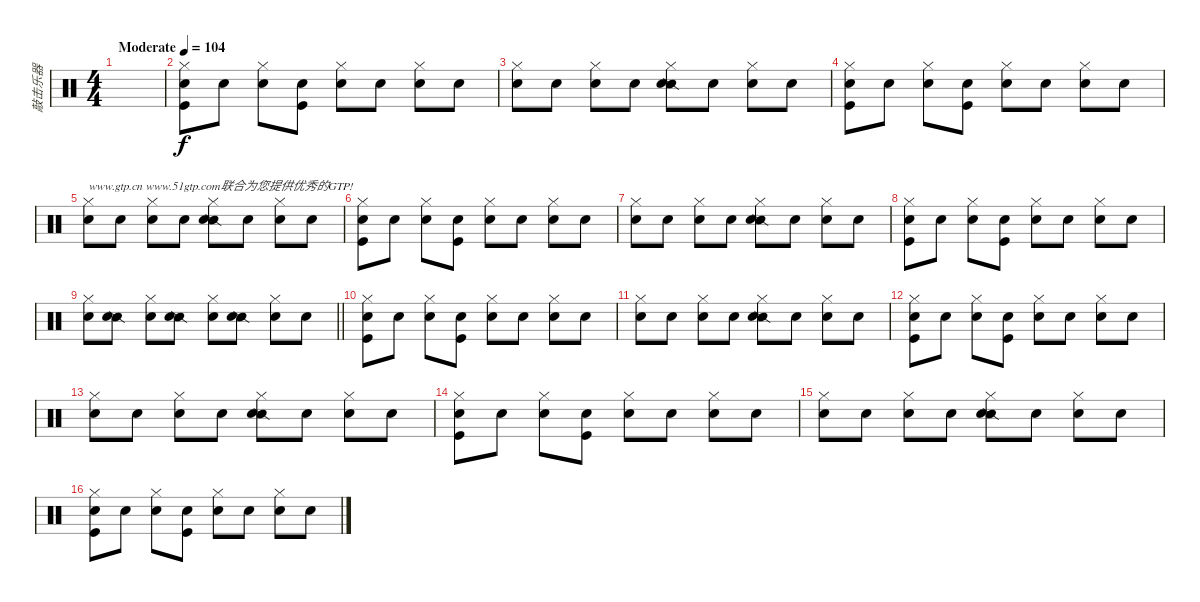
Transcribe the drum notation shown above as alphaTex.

\track ("敲击乐器" "敲击乐器") {instrument percussion}
\staff {score}
\articulation defaults
\ts (4 4)
\tempo (104 "Moderate")
\clef neutral
\ks c
|
("Hi-Hat (closed)" "Snare (hit)" "Kick (hit)").8 "Snare (hit)".8 ("Hi-Hat (closed)" "Snare (hit)").8 ("Snare (hit)" "Kick (hit)").8 ("Hi-Hat (closed)" "Snare (hit)").8 "Snare (hit)".8 ("Hi-Hat (closed)" "Snare (hit)").8 "Snare (hit)".8 |
("Hi-Hat (closed)" "Snare (hit)").8 "Snare (hit)".8 ("Hi-Hat (closed)" "Snare (hit)").8 "Snare (hit)".8 ("Snare (side stick) 2" "Hi-Hat (closed)" "Snare (hit)").8 "Snare (hit)".8 ("Hi-Hat (closed)" "Snare (hit)").8 "Snare (hit)".8 |
("Hi-Hat (closed)" "Snare (hit)" "Kick (hit)").8 "Snare (hit)".8 ("Hi-Hat (closed)" "Snare (hit)").8 ("Snare (hit)" "Kick (hit)").8 ("Hi-Hat (closed)" "Snare (hit)").8 "Snare (hit)".8 ("Hi-Hat (closed)" "Snare (hit)").8 "Snare (hit)".8 |
("Hi-Hat (closed)" "Snare (hit)").8{txt "www.gtp.cn www.51gtp.com联合为您提供优秀的GTP!"} "Snare (hit)".8 ("Hi-Hat (closed)" "Snare (hit)").8 "Snare (hit)".8 ("Snare (side stick) 2" "Hi-Hat (closed)" "Snare (hit)").8 "Snare (hit)".8 ("Hi-Hat (closed)" "Snare (hit)").8 "Snare (hit)".8 |
("Hi-Hat (closed)" "Snare (hit)" "Kick (hit)").8 "Snare (hit)".8 ("Hi-Hat (closed)" "Snare (hit)").8 ("Snare (hit)" "Kick (hit)").8 ("Hi-Hat (closed)" "Snare (hit)").8 "Snare (hit)".8 ("Hi-Hat (closed)" "Snare (hit)").8 "Snare (hit)".8 |
("Hi-Hat (closed)" "Snare (hit)").8 "Snare (hit)".8 ("Hi-Hat (closed)" "Snare (hit)").8 "Snare (hit)".8 ("Snare (side stick) 2" "Hi-Hat (closed)" "Snare (hit)").8 "Snare (hit)".8 ("Hi-Hat (closed)" "Snare (hit)").8 "Snare (hit)".8 |
("Hi-Hat (closed)" "Snare (hit)" "Kick (hit)").8 "Snare (hit)".8 ("Hi-Hat (closed)" "Snare (hit)").8 ("Snare (hit)" "Kick (hit)").8 ("Hi-Hat (closed)" "Snare (hit)").8 "Snare (hit)".8 ("Hi-Hat (closed)" "Snare (hit)").8 "Snare (hit)".8 |
\barLineRight lightlight
("Hi-Hat (closed)" "Snare (hit)").8 ("Snare (side stick) 2" "Snare (hit)").8 ("Hi-Hat (closed)" "Snare (hit)").8 ("Snare (side stick) 2" "Snare (hit)").8 ("Hi-Hat (closed)" "Snare (hit)").8 ("Snare (side stick) 2" "Snare (hit)").8 ("Hi-Hat (closed)" "Snare (hit)").8 "Snare (hit)".8 |
("Hi-Hat (closed)" "Snare (hit)" "Kick (hit)").8 "Snare (hit)".8 ("Hi-Hat (closed)" "Snare (hit)").8 ("Snare (hit)" "Kick (hit)").8 ("Hi-Hat (closed)" "Snare (hit)").8 "Snare (hit)".8 ("Hi-Hat (closed)" "Snare (hit)").8 "Snare (hit)".8 |
("Hi-Hat (closed)" "Snare (hit)").8 "Snare (hit)".8 ("Hi-Hat (closed)" "Snare (hit)").8 "Snare (hit)".8 ("Snare (side stick) 2" "Hi-Hat (closed)" "Snare (hit)").8 "Snare (hit)".8 ("Hi-Hat (closed)" "Snare (hit)").8 "Snare (hit)".8 |
("Hi-Hat (closed)" "Snare (hit)" "Kick (hit)").8 "Snare (hit)".8 ("Hi-Hat (closed)" "Snare (hit)").8 ("Snare (hit)" "Kick (hit)").8 ("Hi-Hat (closed)" "Snare (hit)").8 "Snare (hit)".8 ("Hi-Hat (closed)" "Snare (hit)").8 "Snare (hit)".8 |
("Hi-Hat (closed)" "Snare (hit)").8 "Snare (hit)".8 ("Hi-Hat (closed)" "Snare (hit)").8 "Snare (hit)".8 ("Snare (side stick) 2" "Hi-Hat (closed)" "Snare (hit)").8 "Snare (hit)".8 ("Hi-Hat (closed)" "Snare (hit)").8 "Snare (hit)".8 |
("Hi-Hat (closed)" "Snare (hit)" "Kick (hit)").8 "Snare (hit)".8 ("Hi-Hat (closed)" "Snare (hit)").8 ("Snare (hit)" "Kick (hit)").8 ("Hi-Hat (closed)" "Snare (hit)").8 "Snare (hit)".8 ("Hi-Hat (closed)" "Snare (hit)").8 "Snare (hit)".8 |
("Hi-Hat (closed)" "Snare (hit)").8 "Snare (hit)".8 ("Hi-Hat (closed)" "Snare (hit)").8 "Snare (hit)".8 ("Snare (side stick) 2" "Hi-Hat (closed)" "Snare (hit)").8 "Snare (hit)".8 ("Hi-Hat (closed)" "Snare (hit)").8 "Snare (hit)".8 |
("Hi-Hat (closed)" "Snare (hit)" "Kick (hit)").8 "Snare (hit)".8 ("Hi-Hat (closed)" "Snare (hit)").8 ("Snare (hit)" "Kick (hit)").8 ("Hi-Hat (closed)" "Snare (hit)").8 "Snare (hit)".8 ("Hi-Hat (closed)" "Snare (hit)").8 "Snare (hit)".8
